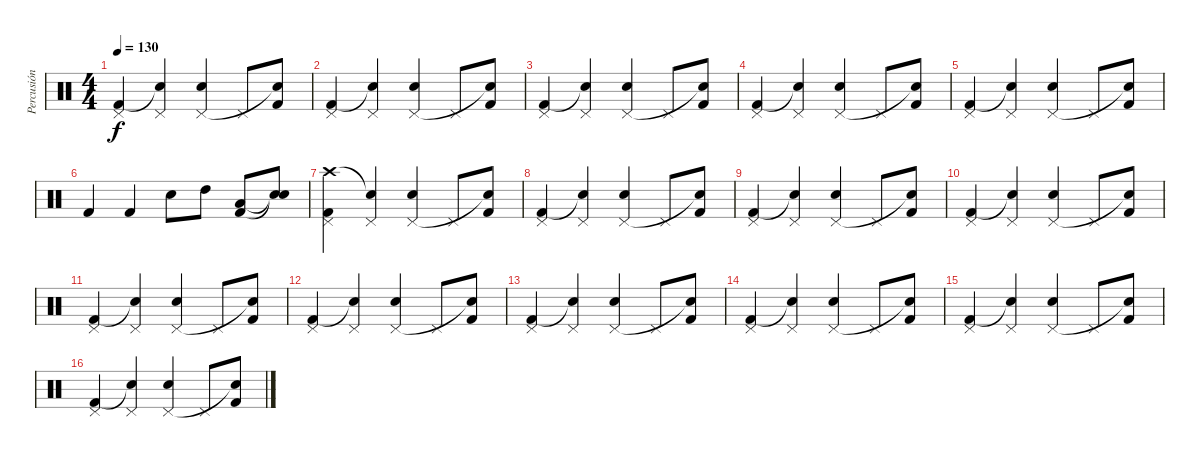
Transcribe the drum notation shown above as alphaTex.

\track ("Percusión" "Percusión") {instrument percussion}
\staff {score}
\articulation defaults
\ts (4 4)
\tempo 130
\clef neutral
\ks c
("Kick (hit) 2" "Pedal Hi-Hat (hit)").4{dy f} ("Snare (hit)"{t} "Pedal Hi-Hat (hit)").4 ("Snare (hit) 2" "Pedal Hi-Hat (hit)").4 "Pedal Hi-Hat (hit)".8 ("Kick (hit) 2" "Snare (hit)"{t}).8 |
("Kick (hit) 2" "Pedal Hi-Hat (hit)").4 ("Snare (hit)"{t} "Pedal Hi-Hat (hit)").4 ("Snare (hit) 2" "Pedal Hi-Hat (hit)").4 "Pedal Hi-Hat (hit)".8 ("Kick (hit) 2" "Snare (hit)"{t}).8 |
("Kick (hit) 2" "Pedal Hi-Hat (hit)").4 ("Snare (hit)"{t} "Pedal Hi-Hat (hit)").4 ("Snare (hit) 2" "Pedal Hi-Hat (hit)").4 "Pedal Hi-Hat (hit)".8 ("Kick (hit) 2" "Snare (hit)"{t}).8 |
("Kick (hit) 2" "Pedal Hi-Hat (hit)").4 ("Snare (hit)"{t} "Pedal Hi-Hat (hit)").4 ("Snare (hit) 2" "Pedal Hi-Hat (hit)").4 "Pedal Hi-Hat (hit)".8 ("Kick (hit) 2" "Snare (hit)"{t}).8 |
("Kick (hit) 2" "Pedal Hi-Hat (hit)").4 ("Snare (hit)"{t} "Pedal Hi-Hat (hit)").4 ("Snare (hit) 2" "Pedal Hi-Hat (hit)").4 "Pedal Hi-Hat (hit)".8 ("Kick (hit) 2" "Snare (hit)"{t}).8 |
"Kick (hit) 2".4 "Kick (hit) 2".4 "Snare (hit) 2".8 "High Tom (hit)".8 ("Kick (hit) 2" "Low Tom (hit)").8 ("Snare (hit)"{t} "Snare (hit)"{t}).8 |
("Crash high (hit)" "Kick (hit) 2" "Pedal Hi-Hat (hit)").4 ("Snare (hit)"{t} "Pedal Hi-Hat (hit)").4 ("Snare (hit) 2" "Pedal Hi-Hat (hit)").4 "Pedal Hi-Hat (hit)".8 ("Kick (hit) 2" "Snare (hit)"{t}).8 |
("Kick (hit) 2" "Pedal Hi-Hat (hit)").4 ("Snare (hit)"{t} "Pedal Hi-Hat (hit)").4 ("Snare (hit) 2" "Pedal Hi-Hat (hit)").4 "Pedal Hi-Hat (hit)".8 ("Kick (hit) 2" "Snare (hit)"{t}).8 |
("Kick (hit) 2" "Pedal Hi-Hat (hit)").4 ("Snare (hit)"{t} "Pedal Hi-Hat (hit)").4 ("Snare (hit) 2" "Pedal Hi-Hat (hit)").4 "Pedal Hi-Hat (hit)".8 ("Kick (hit) 2" "Snare (hit)"{t}).8 |
("Kick (hit) 2" "Pedal Hi-Hat (hit)").4 ("Snare (hit)"{t} "Pedal Hi-Hat (hit)").4 ("Snare (hit) 2" "Pedal Hi-Hat (hit)").4 "Pedal Hi-Hat (hit)".8 ("Kick (hit) 2" "Snare (hit)"{t}).8 |
("Kick (hit) 2" "Pedal Hi-Hat (hit)").4 ("Snare (hit)"{t} "Pedal Hi-Hat (hit)").4 ("Snare (hit) 2" "Pedal Hi-Hat (hit)").4 "Pedal Hi-Hat (hit)".8 ("Kick (hit) 2" "Snare (hit)"{t}).8 |
("Kick (hit) 2" "Pedal Hi-Hat (hit)").4 ("Snare (hit)"{t} "Pedal Hi-Hat (hit)").4 ("Snare (hit) 2" "Pedal Hi-Hat (hit)").4 "Pedal Hi-Hat (hit)".8 ("Kick (hit) 2" "Snare (hit)"{t}).8 |
("Kick (hit) 2" "Pedal Hi-Hat (hit)").4 ("Snare (hit)"{t} "Pedal Hi-Hat (hit)").4 ("Snare (hit) 2" "Pedal Hi-Hat (hit)").4 "Pedal Hi-Hat (hit)".8 ("Kick (hit) 2" "Snare (hit)"{t}).8 |
("Kick (hit) 2" "Pedal Hi-Hat (hit)").4 ("Snare (hit)"{t} "Pedal Hi-Hat (hit)").4 ("Snare (hit) 2" "Pedal Hi-Hat (hit)").4 "Pedal Hi-Hat (hit)".8 ("Kick (hit) 2" "Snare (hit)"{t}).8 |
("Kick (hit) 2" "Pedal Hi-Hat (hit)").4 ("Snare (hit)"{t} "Pedal Hi-Hat (hit)").4 ("Snare (hit) 2" "Pedal Hi-Hat (hit)").4 "Pedal Hi-Hat (hit)".8 ("Kick (hit) 2" "Snare (hit)"{t}).8 |
("Kick (hit) 2" "Pedal Hi-Hat (hit)").4 ("Snare (hit)"{t} "Pedal Hi-Hat (hit)").4 ("Snare (hit) 2" "Pedal Hi-Hat (hit)").4 "Pedal Hi-Hat (hit)".8 ("Kick (hit) 2" "Snare (hit)"{t}).8
